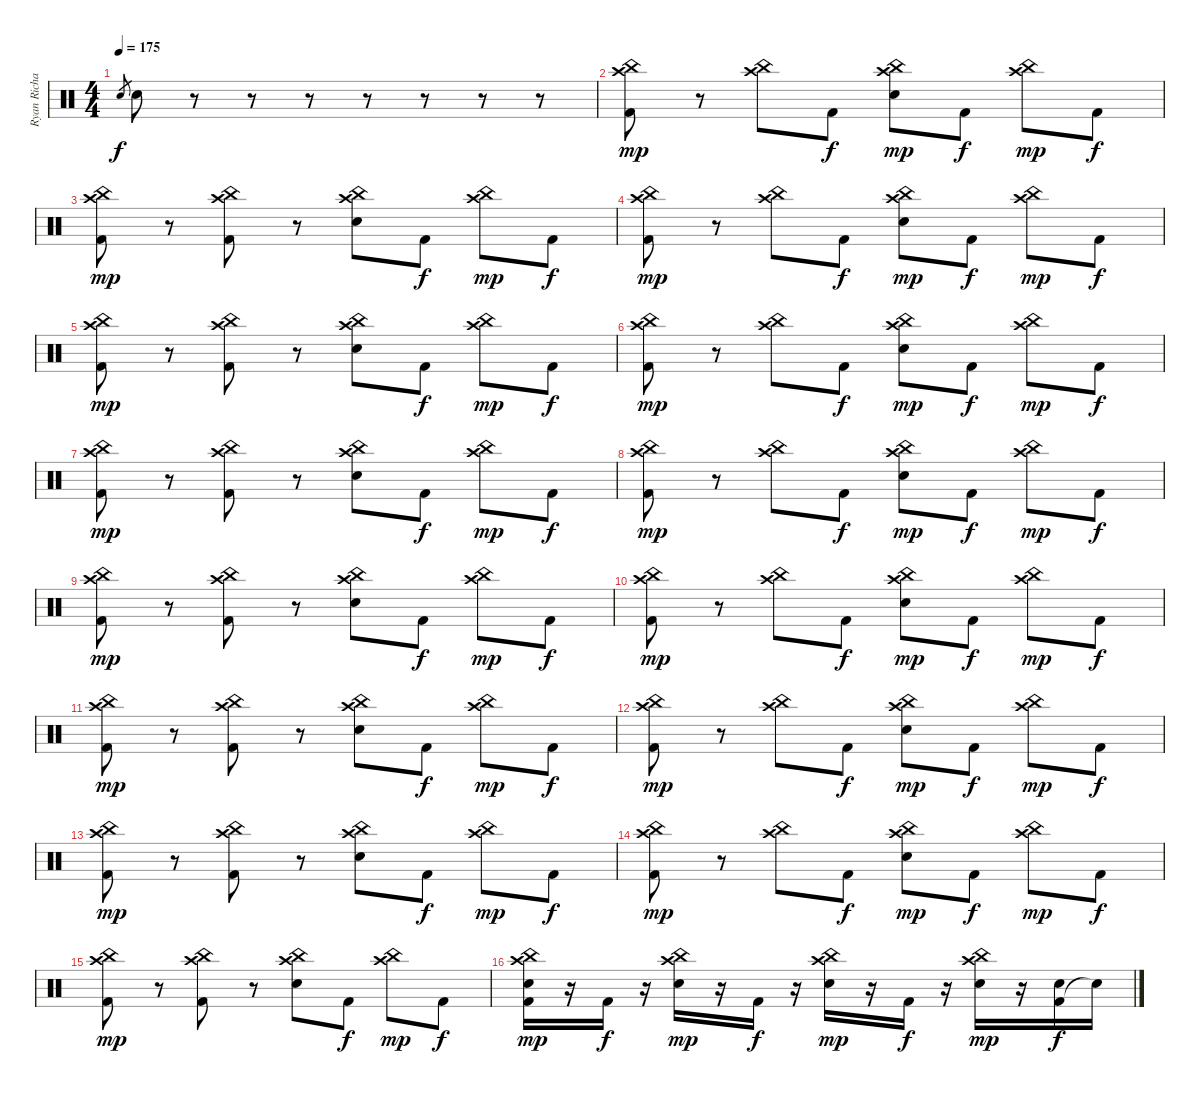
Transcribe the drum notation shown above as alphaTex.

\track ("Ryan Richards" "Ryan Richa") {instrument percussion}
\staff {score}
\articulation defaults
\ts (4 4)
\tempo 175
\clef neutral
\ks c "Snare (hit) 2".8{gr dy f} "Snare (hit) 2".8
r.8 r.8 r.8 r.8 r.8 r.8 r.8 |
("Kick (hit) 2" "Crash high (hit)" "China (hit)").8{dy mp} r.8 ("Crash high (hit)" "China (hit)").8 "Kick (hit) 2".8{dy f} ("Snare (hit) 2" "Crash high (hit)" "China (hit)").8{dy mp} "Kick (hit) 2".8{dy f} ("Crash high (hit)" "China (hit)").8{dy mp} "Kick (hit) 2".8{dy f} |
("Kick (hit) 2" "Crash high (hit)" "China (hit)").8{dy mp} r.8 ("Kick (hit) 2" "Crash high (hit)" "China (hit)").8 r.8 ("Snare (hit) 2" "Crash high (hit)" "China (hit)").8 "Kick (hit) 2".8{dy f} ("Crash high (hit)" "China (hit)").8{dy mp} "Kick (hit) 2".8{dy f} |
("Kick (hit) 2" "Crash high (hit)" "China (hit)").8{dy mp} r.8 ("Crash high (hit)" "China (hit)").8 "Kick (hit) 2".8{dy f} ("Snare (hit) 2" "Crash high (hit)" "China (hit)").8{dy mp} "Kick (hit) 2".8{dy f} ("Crash high (hit)" "China (hit)").8{dy mp} "Kick (hit) 2".8{dy f} |
("Kick (hit) 2" "Crash high (hit)" "China (hit)").8{dy mp} r.8 ("Kick (hit) 2" "Crash high (hit)" "China (hit)").8 r.8 ("Snare (hit) 2" "Crash high (hit)" "China (hit)").8 "Kick (hit) 2".8{dy f} ("Crash high (hit)" "China (hit)").8{dy mp} "Kick (hit) 2".8{dy f} |
("Kick (hit) 2" "Crash high (hit)" "China (hit)").8{dy mp} r.8 ("Crash high (hit)" "China (hit)").8 "Kick (hit) 2".8{dy f} ("Snare (hit) 2" "Crash high (hit)" "China (hit)").8{dy mp} "Kick (hit) 2".8{dy f} ("Crash high (hit)" "China (hit)").8{dy mp} "Kick (hit) 2".8{dy f} |
("Kick (hit) 2" "Crash high (hit)" "China (hit)").8{dy mp} r.8 ("Kick (hit) 2" "Crash high (hit)" "China (hit)").8 r.8 ("Snare (hit) 2" "Crash high (hit)" "China (hit)").8 "Kick (hit) 2".8{dy f} ("Crash high (hit)" "China (hit)").8{dy mp} "Kick (hit) 2".8{dy f} |
("Kick (hit) 2" "Crash high (hit)" "China (hit)").8{dy mp} r.8 ("Crash high (hit)" "China (hit)").8 "Kick (hit) 2".8{dy f} ("Snare (hit) 2" "Crash high (hit)" "China (hit)").8{dy mp} "Kick (hit) 2".8{dy f} ("Crash high (hit)" "China (hit)").8{dy mp} "Kick (hit) 2".8{dy f} |
("Kick (hit) 2" "Crash high (hit)" "China (hit)").8{dy mp} r.8 ("Kick (hit) 2" "Crash high (hit)" "China (hit)").8 r.8 ("Snare (hit) 2" "Crash high (hit)" "China (hit)").8 "Kick (hit) 2".8{dy f} ("Crash high (hit)" "China (hit)").8{dy mp} "Kick (hit) 2".8{dy f} |
("Kick (hit) 2" "Crash high (hit)" "China (hit)").8{dy mp} r.8 ("Crash high (hit)" "China (hit)").8 "Kick (hit) 2".8{dy f} ("Snare (hit) 2" "Crash high (hit)" "China (hit)").8{dy mp} "Kick (hit) 2".8{dy f} ("Crash high (hit)" "China (hit)").8{dy mp} "Kick (hit) 2".8{dy f} |
("Kick (hit) 2" "Crash high (hit)" "China (hit)").8{dy mp} r.8 ("Kick (hit) 2" "Crash high (hit)" "China (hit)").8 r.8 ("Snare (hit) 2" "Crash high (hit)" "China (hit)").8 "Kick (hit) 2".8{dy f} ("Crash high (hit)" "China (hit)").8{dy mp} "Kick (hit) 2".8{dy f} |
("Kick (hit) 2" "Crash high (hit)" "China (hit)").8{dy mp} r.8 ("Crash high (hit)" "China (hit)").8 "Kick (hit) 2".8{dy f} ("Snare (hit) 2" "Crash high (hit)" "China (hit)").8{dy mp} "Kick (hit) 2".8{dy f} ("Crash high (hit)" "China (hit)").8{dy mp} "Kick (hit) 2".8{dy f} |
("Kick (hit) 2" "Crash high (hit)" "China (hit)").8{dy mp} r.8 ("Kick (hit) 2" "Crash high (hit)" "China (hit)").8 r.8 ("Snare (hit) 2" "Crash high (hit)" "China (hit)").8 "Kick (hit) 2".8{dy f} ("Crash high (hit)" "China (hit)").8{dy mp} "Kick (hit) 2".8{dy f} |
("Kick (hit) 2" "Crash high (hit)" "China (hit)").8{dy mp} r.8 ("Crash high (hit)" "China (hit)").8 "Kick (hit) 2".8{dy f} ("Snare (hit) 2" "Crash high (hit)" "China (hit)").8{dy mp} "Kick (hit) 2".8{dy f} ("Crash high (hit)" "China (hit)").8{dy mp} "Kick (hit) 2".8{dy f} |
("Kick (hit) 2" "Crash high (hit)" "China (hit)").8{dy mp} r.8 ("Kick (hit) 2" "Crash high (hit)" "China (hit)").8 r.8 ("Snare (hit) 2" "Crash high (hit)" "China (hit)").8 "Kick (hit) 2".8{dy f} ("Crash high (hit)" "China (hit)").8{dy mp} "Kick (hit) 2".8{dy f} |
("Kick (hit) 2" "Snare (hit) 2" "Crash high (hit)" "China (hit)").16{dy mp} r.16 "Kick (hit) 2".16{dy f} r.16 ("Snare (hit) 2" "Crash high (hit)" "China (hit)").16{dy mp} r.16 "Kick (hit) 2".16{dy f} r.16 ("Snare (hit) 2" "Crash high (hit)" "China (hit)").16{dy mp} r.16 "Kick (hit) 2".16{dy f} r.16 ("Snare (hit) 2" "Crash high (hit)" "China (hit)").16{dy mp} r.16 ("Kick (hit) 2" "Snare (hit) 2").16{dy f} "Snare (hit)"{t}.16
